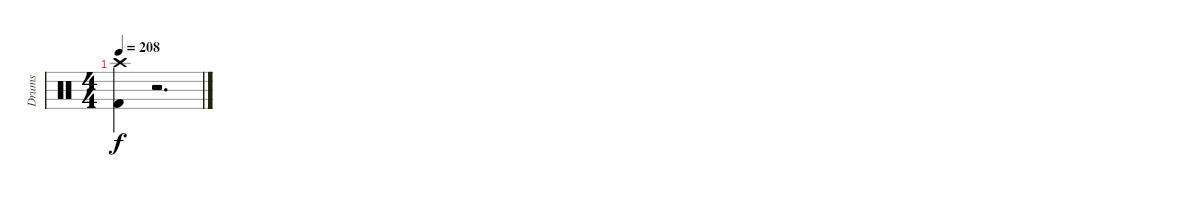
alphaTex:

\track ("Drums" "Drums") {instrument percussion}
\staff {score}
\articulation defaults
\ts (4 4)
\tempo 208
\clef neutral
\ks c
("Crash high (hit)" "Kick (hit) 2").4{dy f} r.2{d}
